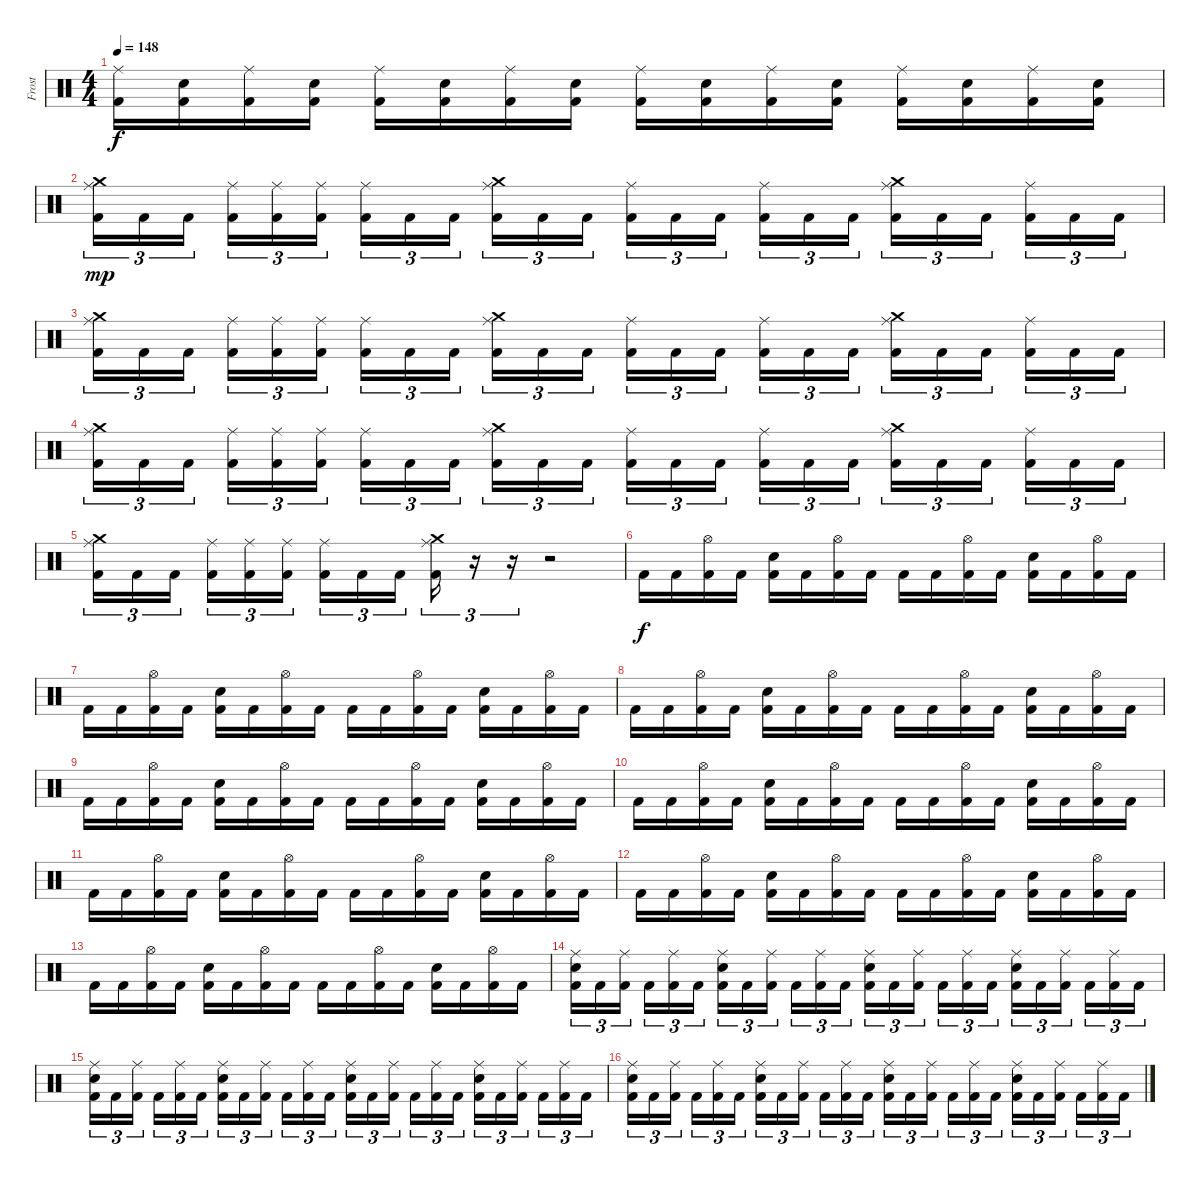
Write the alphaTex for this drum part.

\track ("Frost" "Frost") {instrument percussion}
\staff {score}
\articulation defaults
\ts (4 4)
\tempo 148
\clef neutral
\ks c
("Kick (hit) 2" "Ride (middle)").16{dy f} ("Kick (hit) 2" "Snare (hit) 2").16 ("Kick (hit) 2" "Ride (middle)").16 ("Kick (hit) 2" "Snare (hit) 2").16 ("Kick (hit) 2" "Ride (middle)").16 ("Kick (hit) 2" "Snare (hit) 2").16 ("Kick (hit) 2" "Ride (middle)").16 ("Kick (hit) 2" "Snare (hit) 2").16 ("Kick (hit) 2" "Ride (middle)").16 ("Kick (hit) 2" "Snare (hit) 2").16 ("Kick (hit) 2" "Ride (middle)").16 ("Kick (hit) 2" "Snare (hit) 2").16 ("Kick (hit) 2" "Ride (middle)").16 ("Kick (hit) 2" "Snare (hit) 2").16 ("Kick (hit) 2" "Ride (middle)").16 ("Kick (hit) 2" "Snare (hit) 2").16 |
("Kick (hit) 2" "Ride (middle)" "Crash medium (hit)").16{tu (3 2) dy mp} "Kick (hit) 2".16{tu (3 2)} "Kick (hit) 2".16{tu (3 2)} ("Kick (hit) 2" "Ride (middle)").16{tu (3 2)} ("Kick (hit) 2" "Ride (middle)").16{tu (3 2)} ("Kick (hit) 2" "Ride (middle)").16{tu (3 2)} ("Kick (hit) 2" "Ride (middle)").16{tu (3 2)} "Kick (hit) 2".16{tu (3 2)} "Kick (hit) 2".16{tu (3 2)} ("Kick (hit) 2" "Ride (middle)" "Crash medium (hit)").16{tu (3 2)} "Kick (hit) 2".16{tu (3 2)} "Kick (hit) 2".16{tu (3 2)} ("Kick (hit) 2" "Ride (middle)").16{tu (3 2)} "Kick (hit) 2".16{tu (3 2)} "Kick (hit) 2".16{tu (3 2)} ("Kick (hit) 2" "Ride (middle)").16{tu (3 2)} "Kick (hit) 2".16{tu (3 2)} "Kick (hit) 2".16{tu (3 2)} ("Kick (hit) 2" "Ride (middle)" "Crash medium (hit)").16{tu (3 2)} "Kick (hit) 2".16{tu (3 2)} "Kick (hit) 2".16{tu (3 2)} ("Kick (hit) 2" "Ride (middle)").16{tu (3 2)} "Kick (hit) 2".16{tu (3 2)} "Kick (hit) 2".16{tu (3 2)} |
("Kick (hit) 2" "Ride (middle)" "Crash medium (hit)").16{tu (3 2)} "Kick (hit) 2".16{tu (3 2)} "Kick (hit) 2".16{tu (3 2)} ("Kick (hit) 2" "Ride (middle)").16{tu (3 2)} ("Kick (hit) 2" "Ride (middle)").16{tu (3 2)} ("Kick (hit) 2" "Ride (middle)").16{tu (3 2)} ("Kick (hit) 2" "Ride (middle)").16{tu (3 2)} "Kick (hit) 2".16{tu (3 2)} "Kick (hit) 2".16{tu (3 2)} ("Kick (hit) 2" "Ride (middle)" "Crash medium (hit)").16{tu (3 2)} "Kick (hit) 2".16{tu (3 2)} "Kick (hit) 2".16{tu (3 2)} ("Kick (hit) 2" "Ride (middle)").16{tu (3 2)} "Kick (hit) 2".16{tu (3 2)} "Kick (hit) 2".16{tu (3 2)} ("Kick (hit) 2" "Ride (middle)").16{tu (3 2)} "Kick (hit) 2".16{tu (3 2)} "Kick (hit) 2".16{tu (3 2)} ("Kick (hit) 2" "Ride (middle)" "Crash medium (hit)").16{tu (3 2)} "Kick (hit) 2".16{tu (3 2)} "Kick (hit) 2".16{tu (3 2)} ("Kick (hit) 2" "Ride (middle)").16{tu (3 2)} "Kick (hit) 2".16{tu (3 2)} "Kick (hit) 2".16{tu (3 2)} |
("Kick (hit) 2" "Ride (middle)" "Crash medium (hit)").16{tu (3 2)} "Kick (hit) 2".16{tu (3 2)} "Kick (hit) 2".16{tu (3 2)} ("Kick (hit) 2" "Ride (middle)").16{tu (3 2)} ("Kick (hit) 2" "Ride (middle)").16{tu (3 2)} ("Kick (hit) 2" "Ride (middle)").16{tu (3 2)} ("Kick (hit) 2" "Ride (middle)").16{tu (3 2)} "Kick (hit) 2".16{tu (3 2)} "Kick (hit) 2".16{tu (3 2)} ("Kick (hit) 2" "Ride (middle)" "Crash medium (hit)").16{tu (3 2)} "Kick (hit) 2".16{tu (3 2)} "Kick (hit) 2".16{tu (3 2)} ("Kick (hit) 2" "Ride (middle)").16{tu (3 2)} "Kick (hit) 2".16{tu (3 2)} "Kick (hit) 2".16{tu (3 2)} ("Kick (hit) 2" "Ride (middle)").16{tu (3 2)} "Kick (hit) 2".16{tu (3 2)} "Kick (hit) 2".16{tu (3 2)} ("Kick (hit) 2" "Ride (middle)" "Crash medium (hit)").16{tu (3 2)} "Kick (hit) 2".16{tu (3 2)} "Kick (hit) 2".16{tu (3 2)} ("Kick (hit) 2" "Ride (middle)").16{tu (3 2)} "Kick (hit) 2".16{tu (3 2)} "Kick (hit) 2".16{tu (3 2)} |
("Kick (hit) 2" "Ride (middle)" "Crash medium (hit)").16{tu (3 2)} "Kick (hit) 2".16{tu (3 2)} "Kick (hit) 2".16{tu (3 2)} ("Kick (hit) 2" "Ride (middle)").16{tu (3 2)} ("Kick (hit) 2" "Ride (middle)").16{tu (3 2)} ("Kick (hit) 2" "Ride (middle)").16{tu (3 2)} ("Kick (hit) 2" "Ride (middle)").16{tu (3 2)} "Kick (hit) 2".16{tu (3 2)} "Kick (hit) 2".16{tu (3 2)} ("Kick (hit) 2" "Ride (middle)" "Crash medium (hit)").16{tu (3 2)} r.16{tu (3 2)} r.16{tu (3 2)} r.2 |
"Kick (hit) 2".16{dy f} "Kick (hit) 2".16 ("Kick (hit) 2" "Hi-Hat (open)").16 "Kick (hit) 2".16 ("Kick (hit) 2" "Snare (hit) 2").16 "Kick (hit) 2".16 ("Kick (hit) 2" "Hi-Hat (open)").16 "Kick (hit) 2".16 "Kick (hit) 2".16 "Kick (hit) 2".16 ("Kick (hit) 2" "Hi-Hat (open)").16 "Kick (hit) 2".16 ("Kick (hit) 2" "Snare (hit) 2").16 "Kick (hit) 2".16 ("Kick (hit) 2" "Hi-Hat (open)").16 "Kick (hit) 2".16 |
"Kick (hit) 2".16 "Kick (hit) 2".16 ("Kick (hit) 2" "Hi-Hat (open)").16 "Kick (hit) 2".16 ("Kick (hit) 2" "Snare (hit) 2").16 "Kick (hit) 2".16 ("Kick (hit) 2" "Hi-Hat (open)").16 "Kick (hit) 2".16 "Kick (hit) 2".16 "Kick (hit) 2".16 ("Kick (hit) 2" "Hi-Hat (open)").16 "Kick (hit) 2".16 ("Kick (hit) 2" "Snare (hit) 2").16 "Kick (hit) 2".16 ("Kick (hit) 2" "Hi-Hat (open)").16 "Kick (hit) 2".16 |
"Kick (hit) 2".16 "Kick (hit) 2".16 ("Kick (hit) 2" "Hi-Hat (open)").16 "Kick (hit) 2".16 ("Kick (hit) 2" "Snare (hit) 2").16 "Kick (hit) 2".16 ("Kick (hit) 2" "Hi-Hat (open)").16 "Kick (hit) 2".16 "Kick (hit) 2".16 "Kick (hit) 2".16 ("Kick (hit) 2" "Hi-Hat (open)").16 "Kick (hit) 2".16 ("Kick (hit) 2" "Snare (hit) 2").16 "Kick (hit) 2".16 ("Kick (hit) 2" "Hi-Hat (open)").16 "Kick (hit) 2".16 |
"Kick (hit) 2".16 "Kick (hit) 2".16 ("Kick (hit) 2" "Hi-Hat (open)").16 "Kick (hit) 2".16 ("Kick (hit) 2" "Snare (hit) 2").16 "Kick (hit) 2".16 ("Kick (hit) 2" "Hi-Hat (open)").16 "Kick (hit) 2".16 "Kick (hit) 2".16 "Kick (hit) 2".16 ("Kick (hit) 2" "Hi-Hat (open)").16 "Kick (hit) 2".16 ("Kick (hit) 2" "Snare (hit) 2").16 "Kick (hit) 2".16 ("Kick (hit) 2" "Hi-Hat (open)").16 "Kick (hit) 2".16 |
"Kick (hit) 2".16 "Kick (hit) 2".16 ("Kick (hit) 2" "Hi-Hat (open)").16 "Kick (hit) 2".16 ("Kick (hit) 2" "Snare (hit) 2").16 "Kick (hit) 2".16 ("Kick (hit) 2" "Hi-Hat (open)").16 "Kick (hit) 2".16 "Kick (hit) 2".16 "Kick (hit) 2".16 ("Kick (hit) 2" "Hi-Hat (open)").16 "Kick (hit) 2".16 ("Kick (hit) 2" "Snare (hit) 2").16 "Kick (hit) 2".16 ("Kick (hit) 2" "Hi-Hat (open)").16 "Kick (hit) 2".16 |
"Kick (hit) 2".16 "Kick (hit) 2".16 ("Kick (hit) 2" "Hi-Hat (open)").16 "Kick (hit) 2".16 ("Kick (hit) 2" "Snare (hit) 2").16 "Kick (hit) 2".16 ("Kick (hit) 2" "Hi-Hat (open)").16 "Kick (hit) 2".16 "Kick (hit) 2".16 "Kick (hit) 2".16 ("Kick (hit) 2" "Hi-Hat (open)").16 "Kick (hit) 2".16 ("Kick (hit) 2" "Snare (hit) 2").16 "Kick (hit) 2".16 ("Kick (hit) 2" "Hi-Hat (open)").16 "Kick (hit) 2".16 |
"Kick (hit) 2".16 "Kick (hit) 2".16 ("Kick (hit) 2" "Hi-Hat (open)").16 "Kick (hit) 2".16 ("Kick (hit) 2" "Snare (hit) 2").16 "Kick (hit) 2".16 ("Kick (hit) 2" "Hi-Hat (open)").16 "Kick (hit) 2".16 "Kick (hit) 2".16 "Kick (hit) 2".16 ("Kick (hit) 2" "Hi-Hat (open)").16 "Kick (hit) 2".16 ("Kick (hit) 2" "Snare (hit) 2").16 "Kick (hit) 2".16 ("Kick (hit) 2" "Hi-Hat (open)").16 "Kick (hit) 2".16 |
"Kick (hit) 2".16 "Kick (hit) 2".16 ("Kick (hit) 2" "Hi-Hat (open)").16 "Kick (hit) 2".16 ("Kick (hit) 2" "Snare (hit) 2").16 "Kick (hit) 2".16 ("Kick (hit) 2" "Hi-Hat (open)").16 "Kick (hit) 2".16 "Kick (hit) 2".16 "Kick (hit) 2".16 ("Kick (hit) 2" "Hi-Hat (open)").16 "Kick (hit) 2".16 ("Kick (hit) 2" "Snare (hit) 2").16 "Kick (hit) 2".16 ("Kick (hit) 2" "Hi-Hat (open)").16 "Kick (hit) 2".16 |
("Kick (hit) 2" "Ride (middle)" "Snare (hit) 2").16{tu (3 2)} "Kick (hit) 2".16{tu (3 2)} ("Kick (hit) 2" "Ride (middle)").16{tu (3 2)} "Kick (hit) 2".16{tu (3 2)} ("Kick (hit) 2" "Ride (middle)").16{tu (3 2)} "Kick (hit) 2".16{tu (3 2)} ("Kick (hit) 2" "Ride (middle)" "Snare (hit) 2").16{tu (3 2)} "Kick (hit) 2".16{tu (3 2)} ("Kick (hit) 2" "Ride (middle)").16{tu (3 2)} "Kick (hit) 2".16{tu (3 2)} ("Kick (hit) 2" "Ride (middle)").16{tu (3 2)} "Kick (hit) 2".16{tu (3 2)} ("Kick (hit) 2" "Ride (middle)" "Snare (hit) 2").16{tu (3 2)} "Kick (hit) 2".16{tu (3 2)} ("Kick (hit) 2" "Ride (middle)").16{tu (3 2)} "Kick (hit) 2".16{tu (3 2)} ("Kick (hit) 2" "Ride (middle)").16{tu (3 2)} "Kick (hit) 2".16{tu (3 2)} ("Kick (hit) 2" "Ride (middle)" "Snare (hit) 2").16{tu (3 2)} "Kick (hit) 2".16{tu (3 2)} ("Kick (hit) 2" "Ride (middle)").16{tu (3 2)} "Kick (hit) 2".16{tu (3 2)} ("Kick (hit) 2" "Ride (middle)").16{tu (3 2)} "Kick (hit) 2".16{tu (3 2)} |
("Kick (hit) 2" "Ride (middle)" "Snare (hit) 2").16{tu (3 2)} "Kick (hit) 2".16{tu (3 2)} ("Kick (hit) 2" "Ride (middle)").16{tu (3 2)} "Kick (hit) 2".16{tu (3 2)} ("Kick (hit) 2" "Ride (middle)").16{tu (3 2)} "Kick (hit) 2".16{tu (3 2)} ("Kick (hit) 2" "Ride (middle)" "Snare (hit) 2").16{tu (3 2)} "Kick (hit) 2".16{tu (3 2)} ("Kick (hit) 2" "Ride (middle)").16{tu (3 2)} "Kick (hit) 2".16{tu (3 2)} ("Kick (hit) 2" "Ride (middle)").16{tu (3 2)} "Kick (hit) 2".16{tu (3 2)} ("Kick (hit) 2" "Ride (middle)" "Snare (hit) 2").16{tu (3 2)} "Kick (hit) 2".16{tu (3 2)} ("Kick (hit) 2" "Ride (middle)").16{tu (3 2)} "Kick (hit) 2".16{tu (3 2)} ("Kick (hit) 2" "Ride (middle)").16{tu (3 2)} "Kick (hit) 2".16{tu (3 2)} ("Kick (hit) 2" "Ride (middle)" "Snare (hit) 2").16{tu (3 2)} "Kick (hit) 2".16{tu (3 2)} ("Kick (hit) 2" "Ride (middle)").16{tu (3 2)} "Kick (hit) 2".16{tu (3 2)} ("Kick (hit) 2" "Ride (middle)").16{tu (3 2)} "Kick (hit) 2".16{tu (3 2)} |
("Kick (hit) 2" "Ride (middle)" "Snare (hit) 2").16{tu (3 2)} "Kick (hit) 2".16{tu (3 2)} ("Kick (hit) 2" "Ride (middle)").16{tu (3 2)} "Kick (hit) 2".16{tu (3 2)} ("Kick (hit) 2" "Ride (middle)").16{tu (3 2)} "Kick (hit) 2".16{tu (3 2)} ("Kick (hit) 2" "Ride (middle)" "Snare (hit) 2").16{tu (3 2)} "Kick (hit) 2".16{tu (3 2)} ("Kick (hit) 2" "Ride (middle)").16{tu (3 2)} "Kick (hit) 2".16{tu (3 2)} ("Kick (hit) 2" "Ride (middle)").16{tu (3 2)} "Kick (hit) 2".16{tu (3 2)} ("Kick (hit) 2" "Ride (middle)" "Snare (hit) 2").16{tu (3 2)} "Kick (hit) 2".16{tu (3 2)} ("Kick (hit) 2" "Ride (middle)").16{tu (3 2)} "Kick (hit) 2".16{tu (3 2)} ("Kick (hit) 2" "Ride (middle)").16{tu (3 2)} "Kick (hit) 2".16{tu (3 2)} ("Kick (hit) 2" "Ride (middle)" "Snare (hit) 2").16{tu (3 2)} "Kick (hit) 2".16{tu (3 2)} ("Kick (hit) 2" "Ride (middle)").16{tu (3 2)} "Kick (hit) 2".16{tu (3 2)} ("Kick (hit) 2" "Ride (middle)").16{tu (3 2)} "Kick (hit) 2".16{tu (3 2)}
